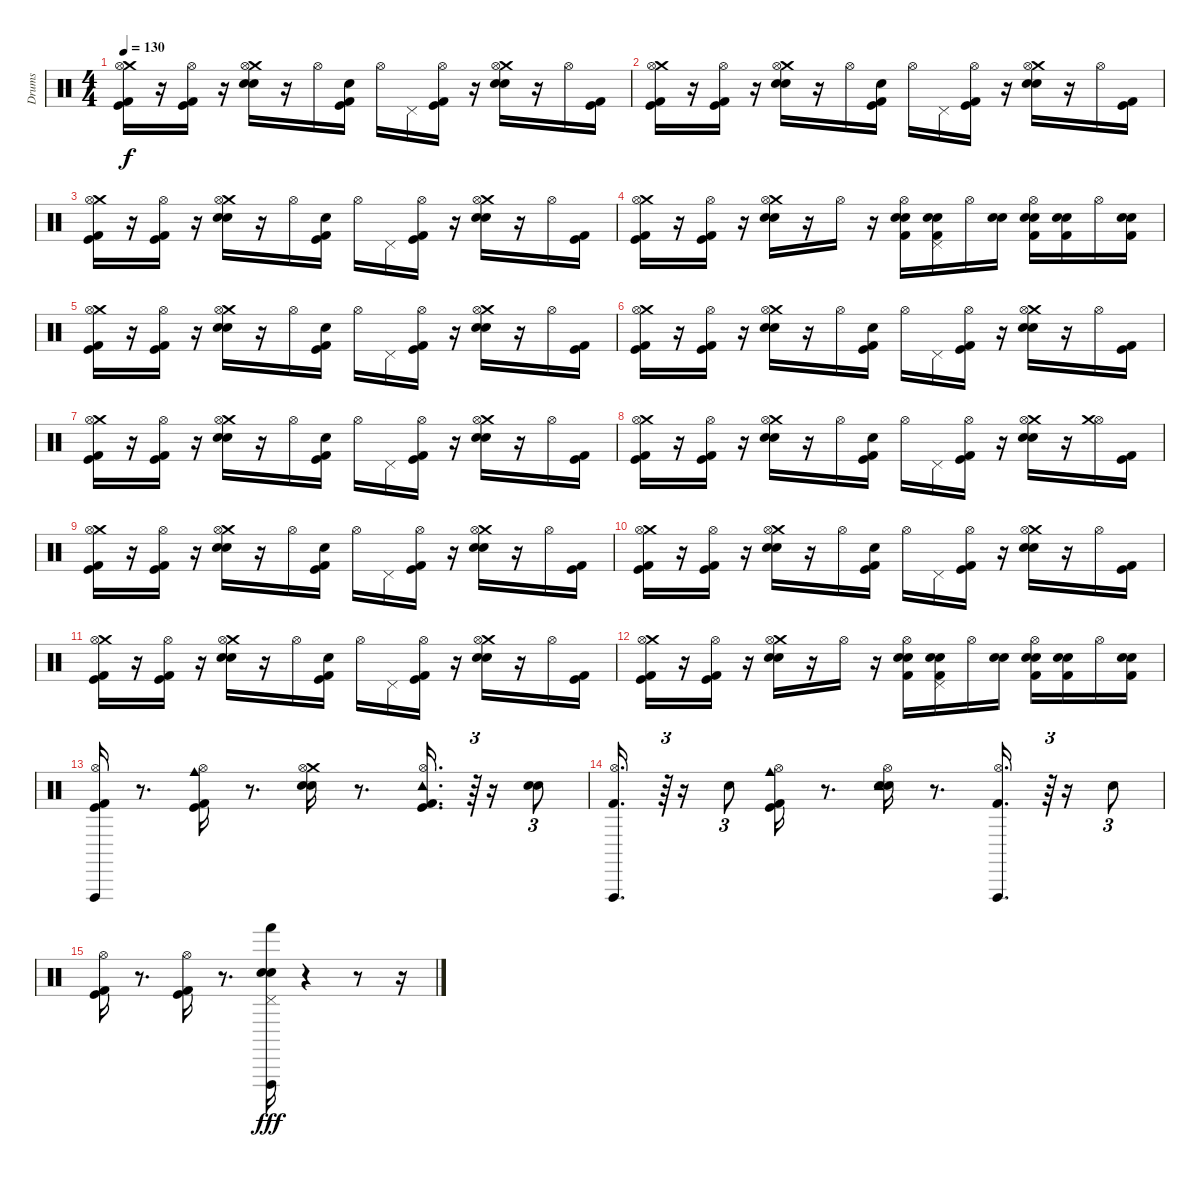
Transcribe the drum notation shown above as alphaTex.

\track ("Drums" "Drums") {instrument percussion}
\staff {score}
\articulation defaults
\ts (4 4)
\tempo 130
\clef neutral
\ks c
("Kick (hit) 2" "Kick (hit)" "Crash medium (hit)" "Hi-Hat (open)").16{dy f} r.16 ("Kick (hit) 2" "Kick (hit)" "Hi-Hat (open)").16 r.16 ("Snare (hit) 2" "Electric Snare (hit)" "Crash medium (hit)" "Hi-Hat (open)").16 r.16 "Hi-Hat (open)".16 ("Kick (hit) 2" "Kick (hit)" "Electric Snare (hit)").16 "Hi-Hat (open)".16 "Pedal Hi-Hat (hit)".16 ("Kick (hit) 2" "Kick (hit)" "Hi-Hat (open)").16 r.16 ("Snare (hit) 2" "Electric Snare (hit)" "Crash medium (hit)" "Hi-Hat (open)").16 r.16 "Hi-Hat (open)".16 ("Kick (hit) 2" "Kick (hit)").16 |
("Kick (hit) 2" "Kick (hit)" "Crash medium (hit)" "Hi-Hat (open)").16 r.16 ("Kick (hit) 2" "Kick (hit)" "Hi-Hat (open)").16 r.16 ("Snare (hit) 2" "Electric Snare (hit)" "Crash medium (hit)" "Hi-Hat (open)").16 r.16 "Hi-Hat (open)".16 ("Kick (hit) 2" "Kick (hit)" "Electric Snare (hit)").16 "Hi-Hat (open)".16 "Pedal Hi-Hat (hit)".16 ("Kick (hit) 2" "Kick (hit)" "Hi-Hat (open)").16 r.16 ("Snare (hit) 2" "Electric Snare (hit)" "Crash medium (hit)" "Hi-Hat (open)").16 r.16 "Hi-Hat (open)".16 ("Kick (hit) 2" "Kick (hit)").16 |
("Kick (hit) 2" "Kick (hit)" "Crash medium (hit)" "Hi-Hat (open)").16 r.16 ("Kick (hit) 2" "Kick (hit)" "Hi-Hat (open)").16 r.16 ("Snare (hit) 2" "Electric Snare (hit)" "Crash medium (hit)" "Hi-Hat (open)").16 r.16 "Hi-Hat (open)".16 ("Kick (hit) 2" "Kick (hit)" "Electric Snare (hit)").16 "Hi-Hat (open)".16 "Pedal Hi-Hat (hit)".16 ("Kick (hit) 2" "Kick (hit)" "Hi-Hat (open)").16 r.16 ("Snare (hit) 2" "Electric Snare (hit)" "Crash medium (hit)" "Hi-Hat (open)").16 r.16 "Hi-Hat (open)".16 ("Kick (hit) 2" "Kick (hit)").16 |
("Kick (hit) 2" "Kick (hit)" "Crash medium (hit)" "Hi-Hat (open)").16 r.16 ("Kick (hit) 2" "Kick (hit)" "Hi-Hat (open)").16 r.16 ("Snare (hit) 2" "Electric Snare (hit)" "Crash medium (hit)" "Hi-Hat (open)").16 r.16 "Hi-Hat (open)".16 r.16 ("Hi-Hat (open)" "Electric Snare (hit)" "Snare (hit) 2" "Kick (hit) 2").16 ("Electric Snare (hit)" "Snare (hit) 2" "Kick (hit) 2" "Pedal Hi-Hat (hit)").16 "Hi-Hat (open)".16 ("Electric Snare (hit)" "Electric Snare (hit)").16 ("Hi-Hat (open)" "Snare (hit) 2" "Electric Snare (hit)" "Kick (hit) 2").16 ("Electric Snare (hit)" "Snare (hit) 2" "Kick (hit) 2").16 "Hi-Hat (open)".16 ("Electric Snare (hit)" "Snare (hit) 2" "Kick (hit) 2").16 |
("Kick (hit) 2" "Kick (hit)" "Crash medium (hit)" "Hi-Hat (open)").16 r.16 ("Kick (hit) 2" "Kick (hit)" "Hi-Hat (open)").16 r.16 ("Snare (hit) 2" "Electric Snare (hit)" "Crash medium (hit)" "Hi-Hat (open)").16 r.16 "Hi-Hat (open)".16 ("Kick (hit) 2" "Kick (hit)" "Electric Snare (hit)").16 "Hi-Hat (open)".16 "Pedal Hi-Hat (hit)".16 ("Kick (hit) 2" "Kick (hit)" "Hi-Hat (open)").16 r.16 ("Snare (hit) 2" "Electric Snare (hit)" "Crash medium (hit)" "Hi-Hat (open)").16 r.16 "Hi-Hat (open)".16 ("Kick (hit) 2" "Kick (hit)").16 |
("Kick (hit) 2" "Kick (hit)" "Crash medium (hit)" "Hi-Hat (open)").16 r.16 ("Kick (hit) 2" "Kick (hit)" "Hi-Hat (open)").16 r.16 ("Snare (hit) 2" "Electric Snare (hit)" "Crash medium (hit)" "Hi-Hat (open)").16 r.16 "Hi-Hat (open)".16 ("Kick (hit) 2" "Kick (hit)" "Electric Snare (hit)").16 "Hi-Hat (open)".16 "Pedal Hi-Hat (hit)".16 ("Kick (hit) 2" "Kick (hit)" "Hi-Hat (open)").16 r.16 ("Snare (hit) 2" "Electric Snare (hit)" "Crash medium (hit)" "Hi-Hat (open)").16 r.16 "Hi-Hat (open)".16 ("Kick (hit) 2" "Kick (hit)").16 |
("Kick (hit) 2" "Kick (hit)" "Crash medium (hit)" "Hi-Hat (open)").16 r.16 ("Kick (hit) 2" "Kick (hit)" "Hi-Hat (open)").16 r.16 ("Snare (hit) 2" "Electric Snare (hit)" "Crash medium (hit)" "Hi-Hat (open)").16 r.16 "Hi-Hat (open)".16 ("Kick (hit) 2" "Kick (hit)" "Electric Snare (hit)").16 "Hi-Hat (open)".16 "Pedal Hi-Hat (hit)".16 ("Kick (hit) 2" "Kick (hit)" "Hi-Hat (open)").16 r.16 ("Snare (hit) 2" "Electric Snare (hit)" "Crash medium (hit)" "Hi-Hat (open)").16 r.16 "Hi-Hat (open)".16 ("Kick (hit) 2" "Kick (hit)").16 |
("Kick (hit) 2" "Kick (hit)" "Crash medium (hit)" "Hi-Hat (open)").16 r.16 ("Kick (hit) 2" "Kick (hit)" "Hi-Hat (open)").16 r.16 ("Snare (hit) 2" "Electric Snare (hit)" "Crash medium (hit)" "Hi-Hat (open)").16 r.16 "Hi-Hat (open)".16 ("Kick (hit) 2" "Kick (hit)" "Electric Snare (hit)").16 "Hi-Hat (open)".16 "Pedal Hi-Hat (hit)".16 ("Kick (hit) 2" "Kick (hit)" "Hi-Hat (open)").16 r.16 ("Snare (hit) 2" "Electric Snare (hit)" "Crash medium (hit)" "Hi-Hat (open)").16 r.16 ("Hi-Hat (open)" "Crash medium (hit)").16 ("Kick (hit) 2" "Kick (hit)").16 |
("Kick (hit) 2" "Kick (hit)" "Crash medium (hit)" "Hi-Hat (open)").16 r.16 ("Kick (hit) 2" "Kick (hit)" "Hi-Hat (open)").16 r.16 ("Snare (hit) 2" "Electric Snare (hit)" "Crash medium (hit)" "Hi-Hat (open)").16 r.16 "Hi-Hat (open)".16 ("Kick (hit) 2" "Kick (hit)" "Electric Snare (hit)").16 "Hi-Hat (open)".16 "Pedal Hi-Hat (hit)".16 ("Kick (hit) 2" "Kick (hit)" "Hi-Hat (open)").16 r.16 ("Snare (hit) 2" "Electric Snare (hit)" "Crash medium (hit)" "Hi-Hat (open)").16 r.16 "Hi-Hat (open)".16 ("Kick (hit) 2" "Kick (hit)").16 |
("Kick (hit) 2" "Kick (hit)" "Crash medium (hit)" "Hi-Hat (open)").16 r.16 ("Kick (hit) 2" "Kick (hit)" "Hi-Hat (open)").16 r.16 ("Snare (hit) 2" "Electric Snare (hit)" "Crash medium (hit)" "Hi-Hat (open)").16 r.16 "Hi-Hat (open)".16 ("Kick (hit) 2" "Kick (hit)" "Electric Snare (hit)").16 "Hi-Hat (open)".16 "Pedal Hi-Hat (hit)".16 ("Kick (hit) 2" "Kick (hit)" "Hi-Hat (open)").16 r.16 ("Snare (hit) 2" "Electric Snare (hit)" "Crash medium (hit)" "Hi-Hat (open)").16 r.16 "Hi-Hat (open)".16 ("Kick (hit) 2" "Kick (hit)").16 |
("Kick (hit) 2" "Kick (hit)" "Crash medium (hit)" "Hi-Hat (open)").16 r.16 ("Kick (hit) 2" "Kick (hit)" "Hi-Hat (open)").16 r.16 ("Snare (hit) 2" "Electric Snare (hit)" "Crash medium (hit)" "Hi-Hat (open)").16 r.16 "Hi-Hat (open)".16 ("Kick (hit) 2" "Kick (hit)" "Electric Snare (hit)").16 "Hi-Hat (open)".16 "Pedal Hi-Hat (hit)".16 ("Kick (hit) 2" "Kick (hit)" "Hi-Hat (open)").16 r.16 ("Snare (hit) 2" "Electric Snare (hit)" "Crash medium (hit)" "Hi-Hat (open)").16 r.16 "Hi-Hat (open)".16 ("Kick (hit) 2" "Kick (hit)").16 |
("Kick (hit) 2" "Kick (hit)" "Crash medium (hit)" "Hi-Hat (open)").16 r.16 ("Kick (hit) 2" "Kick (hit)" "Hi-Hat (open)").16 r.16 ("Snare (hit) 2" "Electric Snare (hit)" "Crash medium (hit)" "Hi-Hat (open)").16 r.16 "Hi-Hat (open)".16 r.16 ("Hi-Hat (open)" "Electric Snare (hit)" "Snare (hit) 2" "Kick (hit) 2").16 ("Electric Snare (hit)" "Snare (hit) 2" "Kick (hit) 2" "Pedal Hi-Hat (hit)").16 "Hi-Hat (open)".16 ("Electric Snare (hit)" "Electric Snare (hit)").16 ("Hi-Hat (open)" "Snare (hit) 2" "Electric Snare (hit)" "Kick (hit) 2").16 ("Electric Snare (hit)" "Snare (hit) 2" "Kick (hit) 2").16 "Hi-Hat (open)".16 ("Electric Snare (hit)" "Snare (hit) 2" "Kick (hit) 2").16 |
("Kick (hit) 2" "Kick (hit)" "Vibraslap (hit)" "Hi-Hat (open)").16 r.8{d} ("Kick (hit) 2" "Kick (hit)" "Cowbell medium (hit)" "Hi-Hat (open)").16 r.8{d} ("Electric Snare (hit)" "Snare (hit) 2" "Crash medium (hit)" "Hi-Hat (open)").16 r.8{d} ("Kick (hit) 2" "Kick (hit)" "Tambourine (hit)" "Hi-Hat (open)").16{d} r.64{tu (3 2)} r.16 ("Electric Snare (hit)" "Snare (hit) 2").8{tu (3 2)} |
("Kick (hit) 2" "Vibraslap (hit)" "Hi-Hat (open)").16{d} r.64{tu (3 2)} r.16 "Snare (hit) 2".8{tu (3 2)} ("Kick (hit) 2" "Kick (hit)" "Cowbell medium (hit)" "Hi-Hat (open)").16 r.8{d} ("Snare (hit) 2" "Electric Snare (hit)" "Tambourine (hit)" "Hi-Hat (open)").16 r.8{d} ("Kick (hit) 2" "Vibraslap (hit)" "Hi-Hat (open)").16{d} r.64{tu (3 2)} r.16 "Snare (hit) 2".8{tu (3 2)} |
("Kick (hit) 2" "Kick (hit)" "Hi-Hat (open)").16 r.8{d} ("Kick (hit)" "Kick (hit) 2" "Hi-Hat (open)").16 r.8{d} ("Electric Snare (hit)" "Snare (hit) 2" "Hand (hit)" "Vibraslap (hit)" "Pedal Hi-Hat (hit)").16{dy fff} r.4 r.8 r.16
